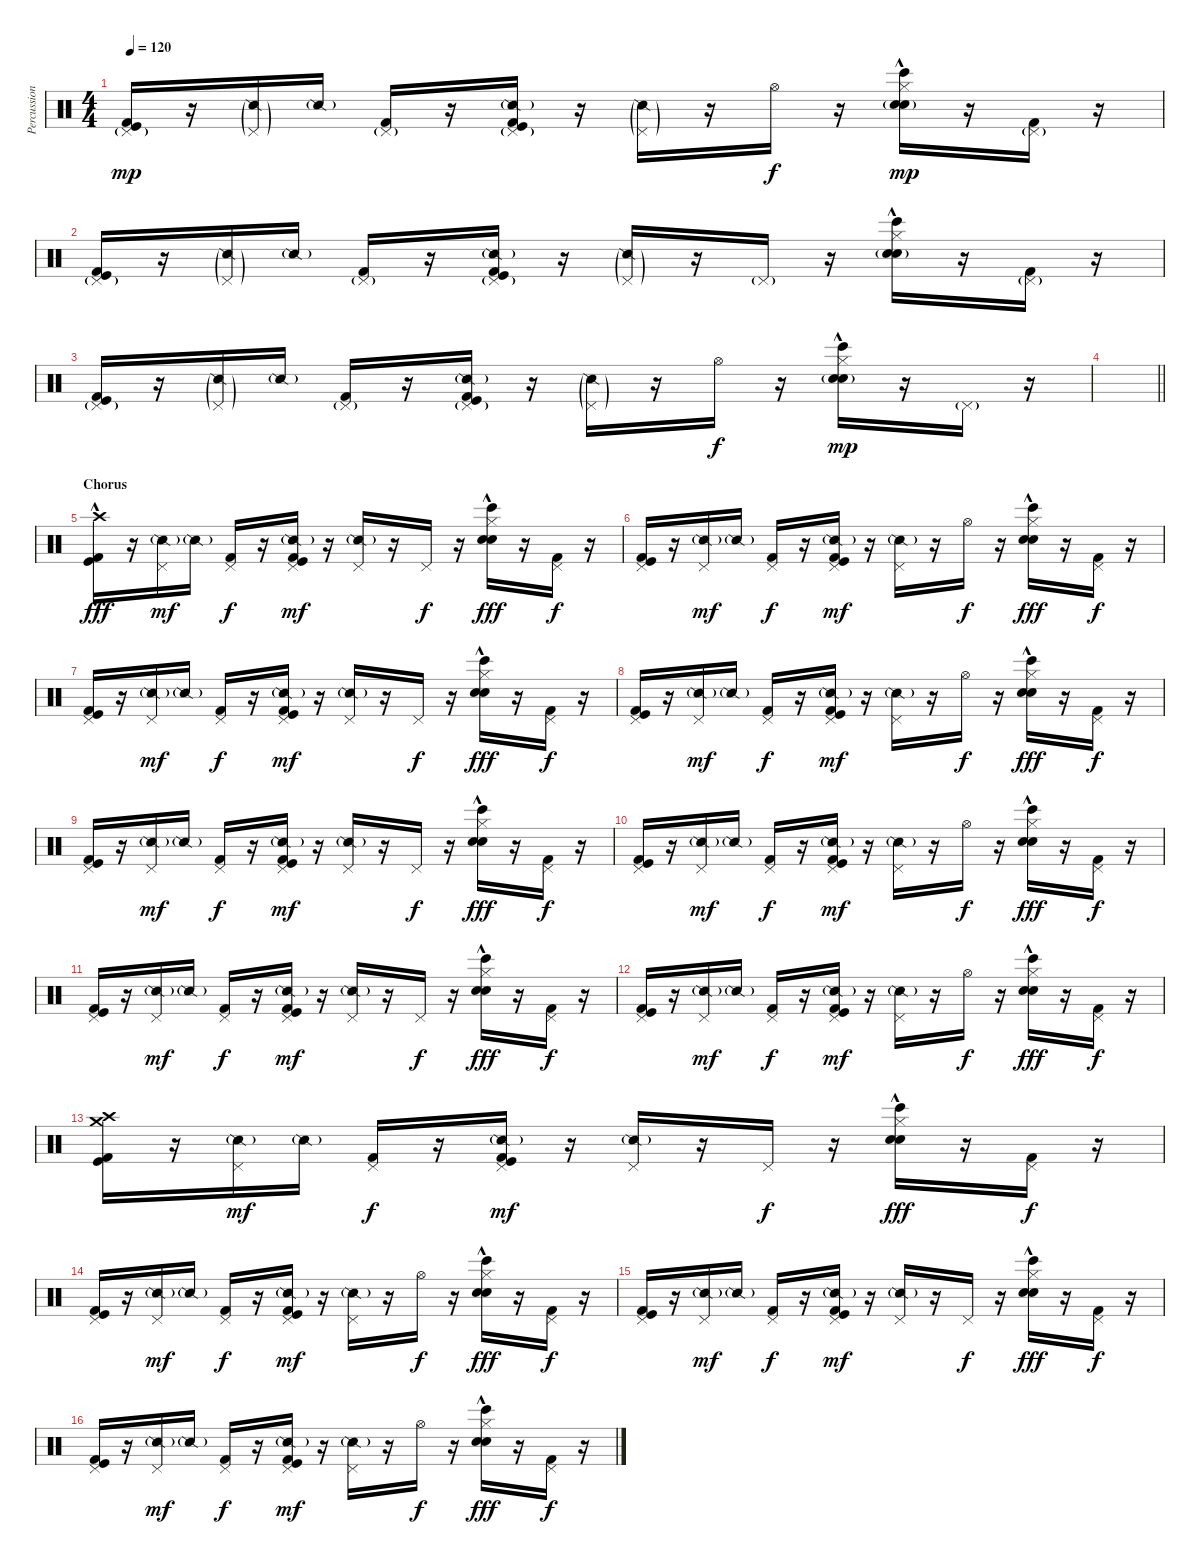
\track ("Percussion" "Percussion") {instrument percussion}
\staff {score}
\articulation defaults
\ts (4 4)
\tempo 120
\clef neutral
\ks c
("Pedal Hi-Hat (hit)"{g} "Kick (hit) 2" "Kick (hit)").16{dy mp} r.16 ("Pedal Hi-Hat (hit)"{g} "Snare (side stick) 2"{g}).16 "Snare (side stick) 2"{g}.16 ("Pedal Hi-Hat (hit)"{g} "Kick (hit) 2").16 r.16 ("Pedal Hi-Hat (hit)"{g} "Snare (side stick) 2"{g} "Kick (hit) 2" "Kick (hit)").16 r.16 ("Pedal Hi-Hat (hit)"{g} "Snare (side stick) 2"{g}).16 r.16 "Hi-Hat (open)".16{dy f} r.16 ("Hi-Hat (closed)"{hac} "Hand Clap (hit)" "Bongo High (hit)" "Electric Snare (hit)"{g}).16{dy mp} r.16 ("Pedal Hi-Hat (hit)"{g} "Kick (hit) 2").16 r.16 |
("Pedal Hi-Hat (hit)"{g} "Kick (hit) 2" "Kick (hit)").16 r.16 ("Pedal Hi-Hat (hit)"{g} "Snare (side stick) 2"{g}).16 "Snare (side stick) 2"{g}.16 ("Pedal Hi-Hat (hit)"{g} "Kick (hit) 2").16 r.16 ("Pedal Hi-Hat (hit)"{g} "Snare (side stick) 2"{g} "Kick (hit) 2" "Kick (hit)").16 r.16 ("Pedal Hi-Hat (hit)"{g} "Snare (side stick) 2"{g}).16 r.16 "Pedal Hi-Hat (hit)"{g}.16 r.16 ("Hi-Hat (closed)"{hac} "Hand Clap (hit)" "Bongo High (hit)" "Electric Snare (hit)"{g}).16 r.16 ("Pedal Hi-Hat (hit)"{g} "Kick (hit) 2").16 r.16 |
("Pedal Hi-Hat (hit)"{g} "Kick (hit) 2" "Kick (hit)").16 r.16 ("Pedal Hi-Hat (hit)"{g} "Snare (side stick) 2"{g}).16 "Snare (side stick) 2"{g}.16 ("Pedal Hi-Hat (hit)"{g} "Kick (hit) 2").16 r.16 ("Pedal Hi-Hat (hit)"{g} "Snare (side stick) 2"{g} "Kick (hit) 2" "Kick (hit)").16 r.16 ("Pedal Hi-Hat (hit)"{g} "Snare (side stick) 2"{g}).16 r.16 "Hi-Hat (open)".16{dy f} r.16 ("Hi-Hat (closed)"{hac} "Hand Clap (hit)" "Bongo High (hit)" "Electric Snare (hit)"{g}).16{dy mp} r.16 "Pedal Hi-Hat (hit)"{g}.16 r.16 |
\barLineRight lightlight
|
\section ("" "Chorus")
("Crash high (hit)" "Kick (hit) 2"{hac} "Kick (hit)"{hac}).16{dy fff} r.16 ("Pedal Hi-Hat (hit)" "Snare (side stick) 2"{g}).16{dy mf} "Snare (side stick) 2"{g}.16 ("Pedal Hi-Hat (hit)" "Kick (hit) 2").16{dy f} r.16 ("Pedal Hi-Hat (hit)" "Snare (side stick) 2"{g} "Kick (hit) 2" "Kick (hit)").16{dy mf} r.16 ("Pedal Hi-Hat (hit)" "Snare (side stick) 2"{g}).16 r.16 "Pedal Hi-Hat (hit)".16{dy f} r.16 ("Hi-Hat (closed)"{hac} "Hand Clap (hit)" "Bongo High (hit)" "Electric Snare (hit)").16{dy fff} r.16 ("Pedal Hi-Hat (hit)" "Kick (hit) 2").16{dy f} r.16 |
("Pedal Hi-Hat (hit)" "Kick (hit) 2" "Kick (hit)").16 r.16 ("Pedal Hi-Hat (hit)" "Snare (side stick) 2"{g}).16{dy mf} "Snare (side stick) 2"{g}.16 ("Pedal Hi-Hat (hit)" "Kick (hit) 2").16{dy f} r.16 ("Pedal Hi-Hat (hit)" "Snare (side stick) 2"{g} "Kick (hit) 2" "Kick (hit)").16{dy mf} r.16 ("Pedal Hi-Hat (hit)" "Snare (side stick) 2"{g}).16 r.16 "Hi-Hat (open)".16{dy f} r.16 ("Hi-Hat (closed)"{hac} "Hand Clap (hit)" "Bongo High (hit)" "Electric Snare (hit)").16{dy fff} r.16 ("Pedal Hi-Hat (hit)" "Kick (hit) 2").16{dy f} r.16 |
("Pedal Hi-Hat (hit)" "Kick (hit) 2" "Kick (hit)").16 r.16 ("Pedal Hi-Hat (hit)" "Snare (side stick) 2"{g}).16{dy mf} "Snare (side stick) 2"{g}.16 ("Pedal Hi-Hat (hit)" "Kick (hit) 2").16{dy f} r.16 ("Pedal Hi-Hat (hit)" "Snare (side stick) 2"{g} "Kick (hit) 2" "Kick (hit)").16{dy mf} r.16 ("Pedal Hi-Hat (hit)" "Snare (side stick) 2"{g}).16 r.16 "Pedal Hi-Hat (hit)".16{dy f} r.16 ("Hi-Hat (closed)"{hac} "Hand Clap (hit)" "Bongo High (hit)" "Electric Snare (hit)").16{dy fff} r.16 ("Pedal Hi-Hat (hit)" "Kick (hit) 2").16{dy f} r.16 |
("Pedal Hi-Hat (hit)" "Kick (hit) 2" "Kick (hit)").16 r.16 ("Pedal Hi-Hat (hit)" "Snare (side stick) 2"{g}).16{dy mf} "Snare (side stick) 2"{g}.16 ("Pedal Hi-Hat (hit)" "Kick (hit) 2").16{dy f} r.16 ("Pedal Hi-Hat (hit)" "Snare (side stick) 2"{g} "Kick (hit) 2" "Kick (hit)").16{dy mf} r.16 ("Pedal Hi-Hat (hit)" "Snare (side stick) 2"{g}).16 r.16 "Hi-Hat (open)".16{dy f} r.16 ("Hi-Hat (closed)"{hac} "Hand Clap (hit)" "Bongo High (hit)" "Electric Snare (hit)").16{dy fff} r.16 ("Pedal Hi-Hat (hit)" "Kick (hit) 2").16{dy f} r.16 |
("Pedal Hi-Hat (hit)" "Kick (hit) 2" "Kick (hit)").16 r.16 ("Pedal Hi-Hat (hit)" "Snare (side stick) 2"{g}).16{dy mf} "Snare (side stick) 2"{g}.16 ("Pedal Hi-Hat (hit)" "Kick (hit) 2").16{dy f} r.16 ("Pedal Hi-Hat (hit)" "Snare (side stick) 2"{g} "Kick (hit) 2" "Kick (hit)").16{dy mf} r.16 ("Pedal Hi-Hat (hit)" "Snare (side stick) 2"{g}).16 r.16 "Pedal Hi-Hat (hit)".16{dy f} r.16 ("Hi-Hat (closed)"{hac} "Hand Clap (hit)" "Bongo High (hit)" "Electric Snare (hit)").16{dy fff} r.16 ("Pedal Hi-Hat (hit)" "Kick (hit) 2").16{dy f} r.16 |
("Pedal Hi-Hat (hit)" "Kick (hit) 2" "Kick (hit)").16 r.16 ("Pedal Hi-Hat (hit)" "Snare (side stick) 2"{g}).16{dy mf} "Snare (side stick) 2"{g}.16 ("Pedal Hi-Hat (hit)" "Kick (hit) 2").16{dy f} r.16 ("Pedal Hi-Hat (hit)" "Snare (side stick) 2"{g} "Kick (hit) 2" "Kick (hit)").16{dy mf} r.16 ("Pedal Hi-Hat (hit)" "Snare (side stick) 2"{g}).16 r.16 "Hi-Hat (open)".16{dy f} r.16 ("Hi-Hat (closed)"{hac} "Hand Clap (hit)" "Bongo High (hit)" "Electric Snare (hit)").16{dy fff} r.16 ("Pedal Hi-Hat (hit)" "Kick (hit) 2").16{dy f} r.16 |
("Pedal Hi-Hat (hit)" "Kick (hit) 2" "Kick (hit)").16 r.16 ("Pedal Hi-Hat (hit)" "Snare (side stick) 2"{g}).16{dy mf} "Snare (side stick) 2"{g}.16 ("Pedal Hi-Hat (hit)" "Kick (hit) 2").16{dy f} r.16 ("Pedal Hi-Hat (hit)" "Snare (side stick) 2"{g} "Kick (hit) 2" "Kick (hit)").16{dy mf} r.16 ("Pedal Hi-Hat (hit)" "Snare (side stick) 2"{g}).16 r.16 "Pedal Hi-Hat (hit)".16{dy f} r.16 ("Hi-Hat (closed)"{hac} "Hand Clap (hit)" "Bongo High (hit)" "Electric Snare (hit)").16{dy fff} r.16 ("Pedal Hi-Hat (hit)" "Kick (hit) 2").16{dy f} r.16 |
("Pedal Hi-Hat (hit)" "Kick (hit) 2" "Kick (hit)").16 r.16 ("Pedal Hi-Hat (hit)" "Snare (side stick) 2"{g}).16{dy mf} "Snare (side stick) 2"{g}.16 ("Pedal Hi-Hat (hit)" "Kick (hit) 2").16{dy f} r.16 ("Pedal Hi-Hat (hit)" "Snare (side stick) 2"{g} "Kick (hit) 2" "Kick (hit)").16{dy mf} r.16 ("Pedal Hi-Hat (hit)" "Snare (side stick) 2"{g}).16 r.16 "Hi-Hat (open)".16{dy f} r.16 ("Hi-Hat (closed)"{hac} "Hand Clap (hit)" "Bongo High (hit)" "Electric Snare (hit)").16{dy fff} r.16 ("Pedal Hi-Hat (hit)" "Kick (hit) 2").16{dy f} r.16 |
("Crash high (hit)" "Crash medium (hit)" "Kick (hit) 2" "Kick (hit)").16 r.16 ("Pedal Hi-Hat (hit)" "Snare (side stick) 2"{g}).16{dy mf} "Snare (side stick) 2"{g}.16 ("Pedal Hi-Hat (hit)" "Kick (hit) 2").16{dy f} r.16 ("Pedal Hi-Hat (hit)" "Snare (side stick) 2"{g} "Kick (hit) 2" "Kick (hit)").16{dy mf} r.16 ("Pedal Hi-Hat (hit)" "Snare (side stick) 2"{g}).16 r.16 "Pedal Hi-Hat (hit)".16{dy f} r.16 ("Hi-Hat (closed)"{hac} "Hand Clap (hit)" "Bongo High (hit)" "Electric Snare (hit)").16{dy fff} r.16 ("Pedal Hi-Hat (hit)" "Kick (hit) 2").16{dy f} r.16 |
("Pedal Hi-Hat (hit)" "Kick (hit) 2" "Kick (hit)").16 r.16 ("Pedal Hi-Hat (hit)" "Snare (side stick) 2"{g}).16{dy mf} "Snare (side stick) 2"{g}.16 ("Pedal Hi-Hat (hit)" "Kick (hit) 2").16{dy f} r.16 ("Pedal Hi-Hat (hit)" "Snare (side stick) 2"{g} "Kick (hit) 2" "Kick (hit)").16{dy mf} r.16 ("Pedal Hi-Hat (hit)" "Snare (side stick) 2"{g}).16 r.16 "Hi-Hat (open)".16{dy f} r.16 ("Hi-Hat (closed)"{hac} "Hand Clap (hit)" "Bongo High (hit)" "Electric Snare (hit)").16{dy fff} r.16 ("Pedal Hi-Hat (hit)" "Kick (hit) 2").16{dy f} r.16 |
("Pedal Hi-Hat (hit)" "Kick (hit) 2" "Kick (hit)").16 r.16 ("Pedal Hi-Hat (hit)" "Snare (side stick) 2"{g}).16{dy mf} "Snare (side stick) 2"{g}.16 ("Pedal Hi-Hat (hit)" "Kick (hit) 2").16{dy f} r.16 ("Pedal Hi-Hat (hit)" "Snare (side stick) 2"{g} "Kick (hit) 2" "Kick (hit)").16{dy mf} r.16 ("Pedal Hi-Hat (hit)" "Snare (side stick) 2"{g}).16 r.16 "Pedal Hi-Hat (hit)".16{dy f} r.16 ("Hi-Hat (closed)"{hac} "Hand Clap (hit)" "Bongo High (hit)" "Electric Snare (hit)").16{dy fff} r.16 ("Pedal Hi-Hat (hit)" "Kick (hit) 2").16{dy f} r.16 |
("Pedal Hi-Hat (hit)" "Kick (hit) 2" "Kick (hit)").16 r.16 ("Pedal Hi-Hat (hit)" "Snare (side stick) 2"{g}).16{dy mf} "Snare (side stick) 2"{g}.16 ("Pedal Hi-Hat (hit)" "Kick (hit) 2").16{dy f} r.16 ("Pedal Hi-Hat (hit)" "Snare (side stick) 2"{g} "Kick (hit) 2" "Kick (hit)").16{dy mf} r.16 ("Pedal Hi-Hat (hit)" "Snare (side stick) 2"{g}).16 r.16 "Hi-Hat (open)".16{dy f} r.16 ("Hi-Hat (closed)"{hac} "Hand Clap (hit)" "Bongo High (hit)" "Electric Snare (hit)").16{dy fff} r.16 ("Pedal Hi-Hat (hit)" "Kick (hit) 2").16{dy f} r.16
